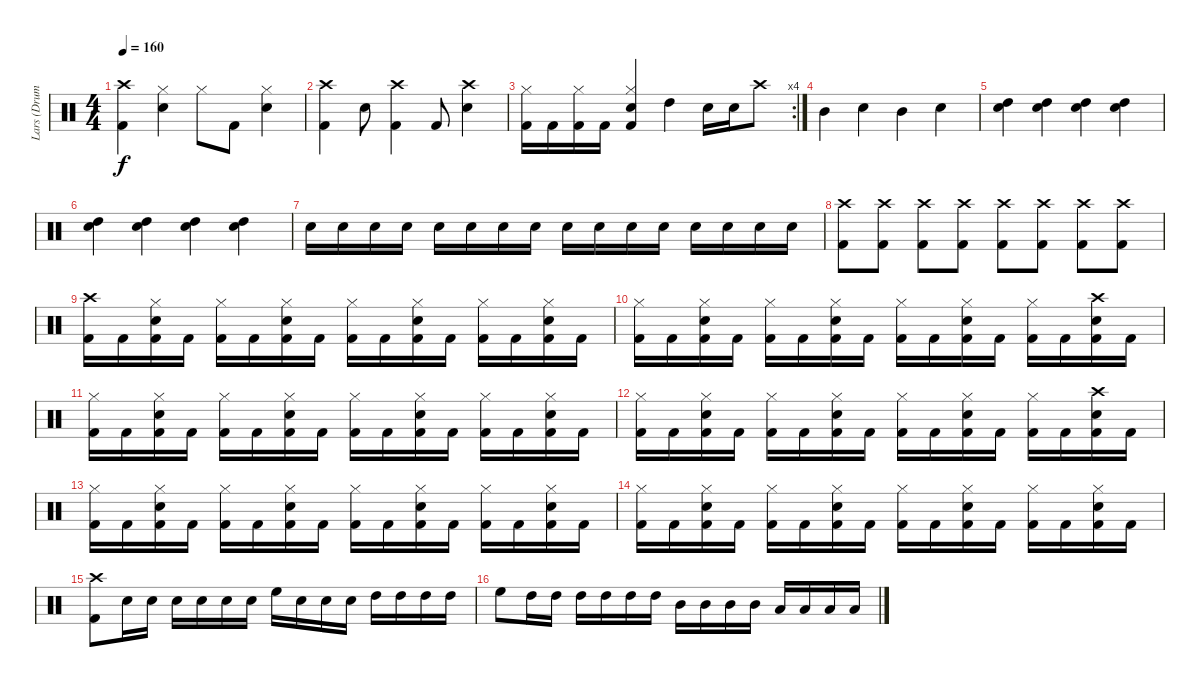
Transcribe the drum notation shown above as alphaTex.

\track ("Lars (Drums)" "Lars (Drum") {instrument percussion}
\staff {score}
\articulation defaults
\ts (4 4)
\tempo 160
\clef neutral
\ks c
("Crash high (hit)" "Kick (hit) 2").4{dy f} ("Hi-Hat (closed)" "Snare (hit) 2").4 "Hi-Hat (closed)".8 "Kick (hit) 2".8 ("Hi-Hat (closed)" "Snare (hit) 2").4 |
("Crash high (hit)" "Kick (hit) 2").4 "Snare (hit) 2".8 ("Crash high (hit)" "Kick (hit) 2").4 "Kick (hit) 2".8 ("Crash high (hit)" "Snare (hit) 2").4 |
\rc 4
("Hi-Hat (closed)" "Kick (hit) 2").16 "Kick (hit) 2".16 ("Hi-Hat (closed)" "Kick (hit) 2").16 "Kick (hit) 2".16 ("Hi-Hat (closed)" "Kick (hit) 2" "Snare (hit) 2").4 "High Tom (hit)".4 "Snare (hit) 2".16 "Snare (hit) 2".16 "Crash high (hit)".8 |
"Mid Tom (hit)".4 "Snare (hit) 2".4 "Mid Tom (hit)".4 "Snare (hit) 2".4 |
("Snare (hit) 2" "High Tom (hit)").4 ("Snare (hit) 2" "High Tom (hit)").4 ("Snare (hit) 2" "High Tom (hit)").4 ("Snare (hit) 2" "High Tom (hit)").4 |
("Snare (hit) 2" "High Tom (hit)").4 ("Snare (hit) 2" "High Tom (hit)").4 ("Snare (hit) 2" "High Tom (hit)").4 ("Snare (hit) 2" "High Tom (hit)").4 |
"Snare (hit) 2".16 "Snare (hit) 2".16 "Snare (hit) 2".16 "Snare (hit) 2".16 "Snare (hit) 2".16 "Snare (hit) 2".16 "Snare (hit) 2".16 "Snare (hit) 2".16 "Snare (hit) 2".16 "Snare (hit) 2".16 "Snare (hit) 2".16 "Snare (hit) 2".16 "Snare (hit) 2".16 "Snare (hit) 2".16 "Snare (hit) 2".16 "Snare (hit) 2".16 |
("Crash high (hit)" "Kick (hit) 2").8 ("Crash high (hit)" "Kick (hit) 2").8 ("Crash high (hit)" "Kick (hit) 2").8 ("Crash high (hit)" "Kick (hit) 2").8 ("Crash high (hit)" "Kick (hit) 2").8 ("Crash high (hit)" "Kick (hit) 2").8 ("Crash high (hit)" "Kick (hit) 2").8 ("Crash high (hit)" "Kick (hit) 2").8 |
("Crash high (hit)" "Kick (hit) 2").16 "Kick (hit) 2".16 ("Hi-Hat (closed)" "Kick (hit) 2" "Snare (hit) 2").16 "Kick (hit) 2".16 ("Hi-Hat (closed)" "Kick (hit) 2").16 "Kick (hit) 2".16 ("Hi-Hat (closed)" "Kick (hit) 2" "Snare (hit) 2").16 "Kick (hit) 2".16 ("Hi-Hat (closed)" "Kick (hit) 2").16 "Kick (hit) 2".16 ("Hi-Hat (closed)" "Kick (hit) 2" "Snare (hit) 2").16 "Kick (hit) 2".16 ("Hi-Hat (closed)" "Kick (hit) 2").16 "Kick (hit) 2".16 ("Hi-Hat (closed)" "Kick (hit) 2" "Snare (hit) 2").16 "Kick (hit) 2".16 |
("Hi-Hat (closed)" "Kick (hit) 2").16 "Kick (hit) 2".16 ("Hi-Hat (closed)" "Kick (hit) 2" "Snare (hit) 2").16 "Kick (hit) 2".16 ("Hi-Hat (closed)" "Kick (hit) 2").16 "Kick (hit) 2".16 ("Hi-Hat (closed)" "Kick (hit) 2" "Snare (hit) 2").16 "Kick (hit) 2".16 ("Hi-Hat (closed)" "Kick (hit) 2").16 "Kick (hit) 2".16 ("Hi-Hat (closed)" "Kick (hit) 2" "Snare (hit) 2").16 "Kick (hit) 2".16 ("Hi-Hat (closed)" "Kick (hit) 2").16 "Kick (hit) 2".16 ("Crash high (hit)" "Kick (hit) 2" "Snare (hit) 2").16 "Kick (hit) 2".16 |
("Hi-Hat (closed)" "Kick (hit) 2").16 "Kick (hit) 2".16 ("Hi-Hat (closed)" "Kick (hit) 2" "Snare (hit) 2").16 "Kick (hit) 2".16 ("Hi-Hat (closed)" "Kick (hit) 2").16 "Kick (hit) 2".16 ("Hi-Hat (closed)" "Kick (hit) 2" "Snare (hit) 2").16 "Kick (hit) 2".16 ("Hi-Hat (closed)" "Kick (hit) 2").16 "Kick (hit) 2".16 ("Hi-Hat (closed)" "Kick (hit) 2" "Snare (hit) 2").16 "Kick (hit) 2".16 ("Hi-Hat (closed)" "Kick (hit) 2").16 "Kick (hit) 2".16 ("Hi-Hat (closed)" "Kick (hit) 2" "Snare (hit) 2").16 "Kick (hit) 2".16 |
("Hi-Hat (closed)" "Kick (hit) 2").16 "Kick (hit) 2".16 ("Hi-Hat (closed)" "Kick (hit) 2" "Snare (hit) 2").16 "Kick (hit) 2".16 ("Hi-Hat (closed)" "Kick (hit) 2").16 "Kick (hit) 2".16 ("Hi-Hat (closed)" "Kick (hit) 2" "Snare (hit) 2").16 "Kick (hit) 2".16 ("Hi-Hat (closed)" "Kick (hit) 2").16 "Kick (hit) 2".16 ("Hi-Hat (closed)" "Kick (hit) 2" "Snare (hit) 2").16 "Kick (hit) 2".16 ("Hi-Hat (closed)" "Kick (hit) 2").16 "Kick (hit) 2".16 ("Crash high (hit)" "Kick (hit) 2" "Snare (hit) 2").16 "Kick (hit) 2".16 |
("Hi-Hat (closed)" "Kick (hit) 2").16 "Kick (hit) 2".16 ("Hi-Hat (closed)" "Kick (hit) 2" "Snare (hit) 2").16 "Kick (hit) 2".16 ("Hi-Hat (closed)" "Kick (hit) 2").16 "Kick (hit) 2".16 ("Hi-Hat (closed)" "Kick (hit) 2" "Snare (hit) 2").16 "Kick (hit) 2".16 ("Hi-Hat (closed)" "Kick (hit) 2").16 "Kick (hit) 2".16 ("Hi-Hat (closed)" "Kick (hit) 2" "Snare (hit) 2").16 "Kick (hit) 2".16 ("Hi-Hat (closed)" "Kick (hit) 2").16 "Kick (hit) 2".16 ("Hi-Hat (closed)" "Kick (hit) 2" "Snare (hit) 2").16 "Kick (hit) 2".16 |
("Hi-Hat (closed)" "Kick (hit) 2").16 "Kick (hit) 2".16 ("Hi-Hat (closed)" "Kick (hit) 2" "Snare (hit) 2").16 "Kick (hit) 2".16 ("Hi-Hat (closed)" "Kick (hit) 2").16 "Kick (hit) 2".16 ("Hi-Hat (closed)" "Kick (hit) 2" "Snare (hit) 2").16 "Kick (hit) 2".16 ("Hi-Hat (closed)" "Kick (hit) 2").16 "Kick (hit) 2".16 ("Hi-Hat (closed)" "Kick (hit) 2" "Snare (hit) 2").16 "Kick (hit) 2".16 ("Hi-Hat (closed)" "Kick (hit) 2").16 "Kick (hit) 2".16 ("Hi-Hat (closed)" "Kick (hit) 2" "Snare (hit) 2").16 "Kick (hit) 2".16 |
("Crash high (hit)" "Kick (hit) 2").8 "Snare (hit) 2".16 "Snare (hit) 2".16 "Snare (hit) 2".16 "Snare (hit) 2".16 "Snare (hit) 2".16 "Snare (hit) 2".16 "High Floor Tom (hit)".16 "Snare (hit) 2".16 "Snare (hit) 2".16 "Snare (hit) 2".16 "High Tom (hit)".16 "High Tom (hit)".16 "High Tom (hit)".16 "High Tom (hit)".16 |
"High Floor Tom (hit)".8 "High Tom (hit)".16 "High Tom (hit)".16 "High Tom (hit)".16 "High Tom (hit)".16 "High Tom (hit)".16 "High Tom (hit)".16 "Mid Tom (hit)".16 "Mid Tom (hit)".16 "Mid Tom (hit)".16 "Mid Tom (hit)".16 "Low Tom (hit)".16 "Low Tom (hit)".16 "Low Tom (hit)".16 "Low Tom (hit)".16
